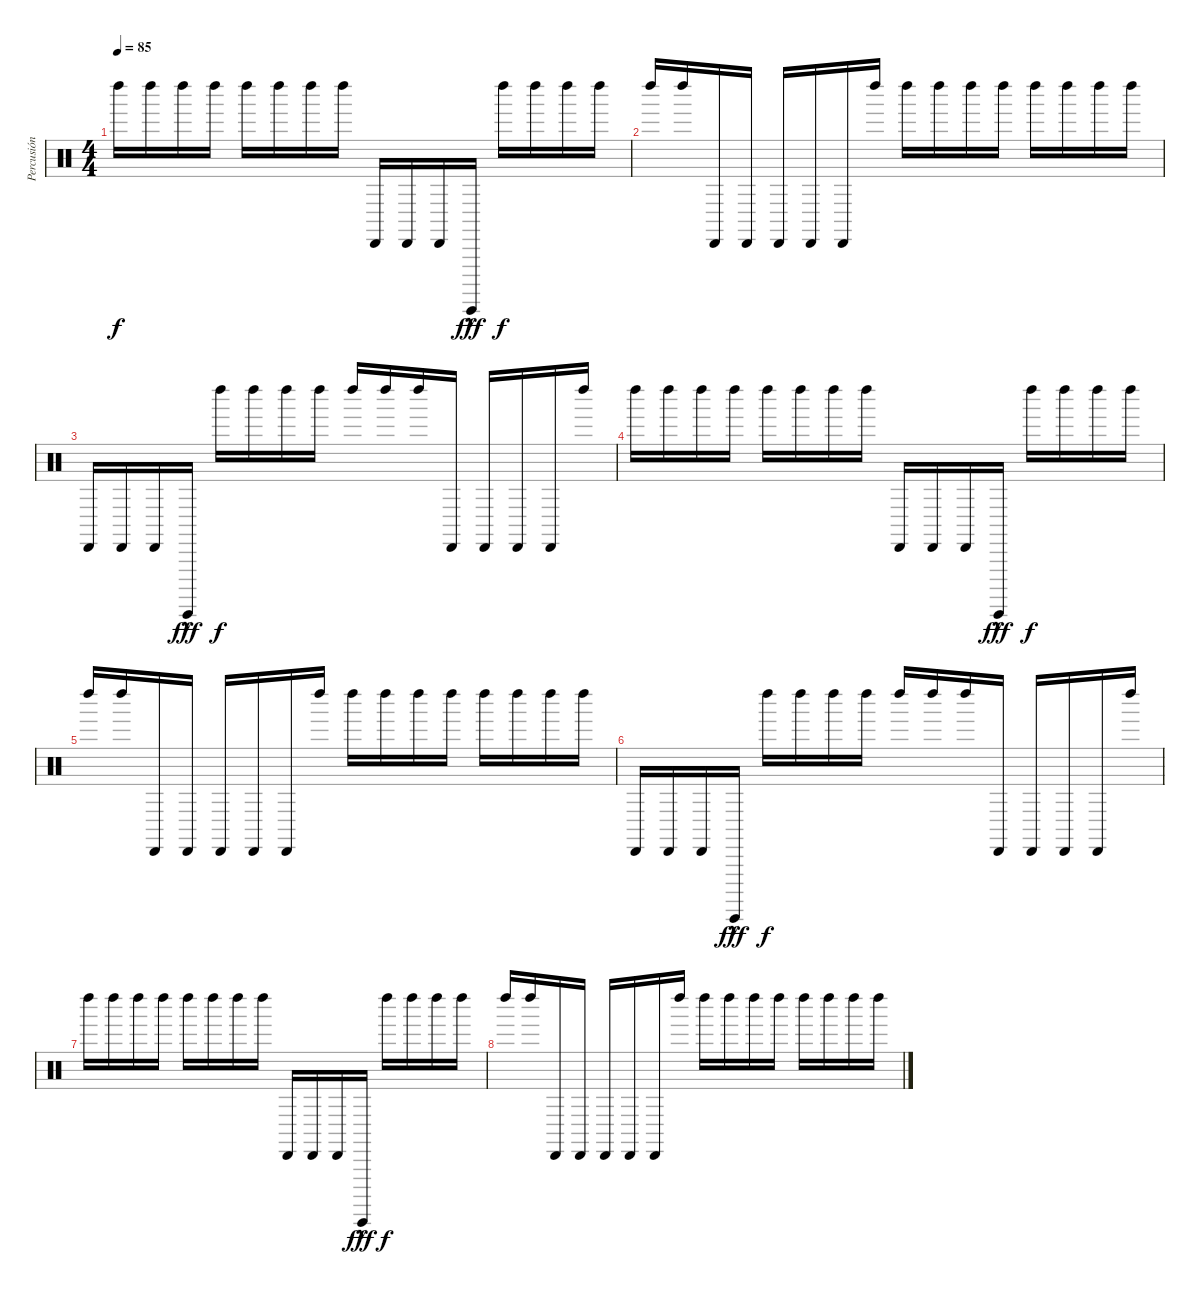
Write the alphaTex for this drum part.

\track ("Percusión" "Percusión") {instrument percussion}
\staff {score}
\articulation defaults
\ts (4 4)
\tempo 85
\clef neutral
\ks c "Left Maraca (hit)".16{dy f} "Left Maraca (hit)".16 "Left Maraca (hit)".16 "Left Maraca (hit)".16 "Left Maraca (hit)".16 "Left Maraca (hit)".16 "Left Maraca (hit)".16 "Left Maraca (hit)".16 "Cabasa (hit)".16 "Cabasa (hit)".16 "Cabasa (hit)".16 "Guiro (hit)"{hac}.16{dy fff} "Left Maraca (hit)".16{dy f} "Left Maraca (hit)".16 "Left Maraca (hit)".16 "Left Maraca (hit)".16
|
"Left Maraca (hit)".16 "Left Maraca (hit)".16 "Cabasa (hit)".16 "Cabasa (hit)".16 "Cabasa (hit)".16 "Cabasa (hit)".16 "Cabasa (hit)".16 "Left Maraca (hit)".16 "Left Maraca (hit)".16 "Left Maraca (hit)".16 "Left Maraca (hit)".16 "Left Maraca (hit)".16 "Left Maraca (hit)".16 "Left Maraca (hit)".16 "Left Maraca (hit)".16 "Left Maraca (hit)".16 |
"Cabasa (hit)".16 "Cabasa (hit)".16 "Cabasa (hit)".16 "Guiro (hit)"{hac}.16{dy fff} "Left Maraca (hit)".16{dy f} "Left Maraca (hit)".16 "Left Maraca (hit)".16 "Left Maraca (hit)".16 "Left Maraca (hit)".16 "Left Maraca (hit)".16 "Left Maraca (hit)".16 "Cabasa (hit)".16 "Cabasa (hit)".16 "Cabasa (hit)".16 "Cabasa (hit)".16 "Left Maraca (hit)".16 |
"Left Maraca (hit)".16 "Left Maraca (hit)".16 "Left Maraca (hit)".16 "Left Maraca (hit)".16 "Left Maraca (hit)".16 "Left Maraca (hit)".16 "Left Maraca (hit)".16 "Left Maraca (hit)".16 "Cabasa (hit)".16 "Cabasa (hit)".16 "Cabasa (hit)".16 "Guiro (hit)"{hac}.16{dy fff} "Left Maraca (hit)".16{dy f} "Left Maraca (hit)".16 "Left Maraca (hit)".16 "Left Maraca (hit)".16 |
"Left Maraca (hit)".16 "Left Maraca (hit)".16 "Cabasa (hit)".16 "Cabasa (hit)".16 "Cabasa (hit)".16 "Cabasa (hit)".16 "Cabasa (hit)".16 "Left Maraca (hit)".16 "Left Maraca (hit)".16 "Left Maraca (hit)".16 "Left Maraca (hit)".16 "Left Maraca (hit)".16 "Left Maraca (hit)".16 "Left Maraca (hit)".16 "Left Maraca (hit)".16 "Left Maraca (hit)".16 |
"Cabasa (hit)".16 "Cabasa (hit)".16 "Cabasa (hit)".16 "Guiro (hit)"{hac}.16{dy fff} "Left Maraca (hit)".16{dy f} "Left Maraca (hit)".16 "Left Maraca (hit)".16 "Left Maraca (hit)".16 "Left Maraca (hit)".16 "Left Maraca (hit)".16 "Left Maraca (hit)".16 "Cabasa (hit)".16 "Cabasa (hit)".16 "Cabasa (hit)".16 "Cabasa (hit)".16 "Left Maraca (hit)".16 |
"Left Maraca (hit)".16 "Left Maraca (hit)".16 "Left Maraca (hit)".16 "Left Maraca (hit)".16 "Left Maraca (hit)".16 "Left Maraca (hit)".16 "Left Maraca (hit)".16 "Left Maraca (hit)".16 "Cabasa (hit)".16 "Cabasa (hit)".16 "Cabasa (hit)".16 "Guiro (hit)"{hac}.16{dy fff} "Left Maraca (hit)".16{dy f} "Left Maraca (hit)".16 "Left Maraca (hit)".16 "Left Maraca (hit)".16 |
"Left Maraca (hit)".16 "Left Maraca (hit)".16 "Cabasa (hit)".16 "Cabasa (hit)".16 "Cabasa (hit)".16 "Cabasa (hit)".16 "Cabasa (hit)".16 "Left Maraca (hit)".16 "Left Maraca (hit)".16 "Left Maraca (hit)".16 "Left Maraca (hit)".16 "Left Maraca (hit)".16 "Left Maraca (hit)".16 "Left Maraca (hit)".16 "Left Maraca (hit)".16 "Left Maraca (hit)".16
